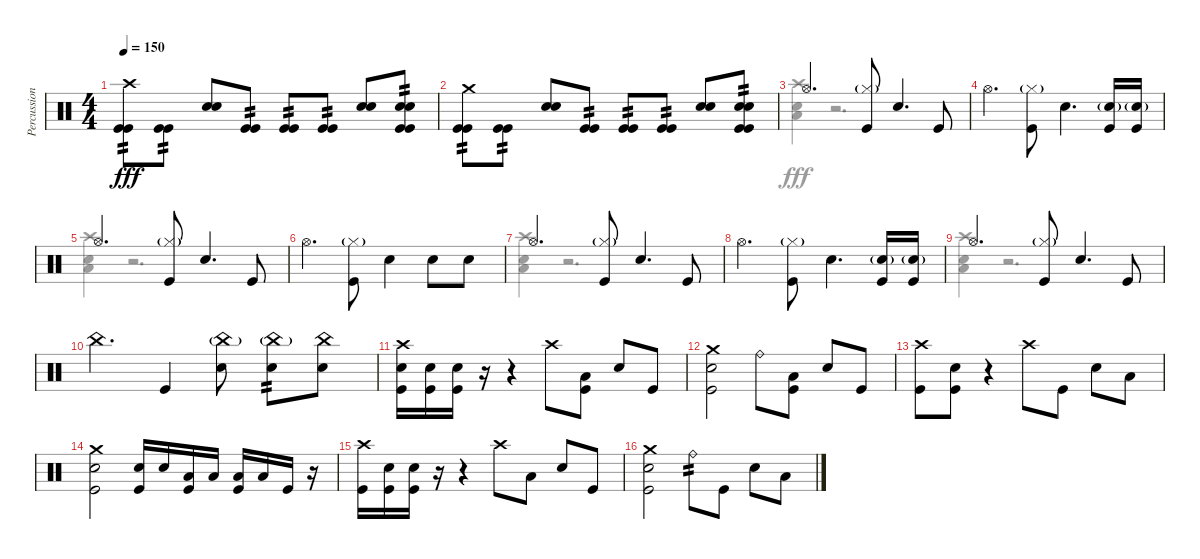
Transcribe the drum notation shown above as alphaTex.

\track ("Percussion" "Percussion") {instrument percussion}
\staff {score}
\articulation defaults
\voice
\ts (4 4)
\tempo 150
\clef neutral
\ks c
("Crash high (hit)" "Kick (hit)" "Kick (hit)").8{tp 2 dy fff} ("Kick (hit)" "Kick (hit)").8{tp 2} ("Snare (hit) 2" "Snare (hit) 2").8 ("Kick (hit)" "Kick (hit)").8{tp 2} ("Kick (hit)" "Kick (hit)").8{tp 2} ("Kick (hit)" "Kick (hit)").8{tp 2} ("Snare (hit) 2" "Snare (hit) 2").8 ("Snare (hit) 2" "Snare (hit) 2" "Kick (hit)" "Kick (hit)").8{tp 2} |
("Crash medium (hit)" "Kick (hit)" "Kick (hit)").8{tp 2} ("Kick (hit)" "Kick (hit)").8{tp 2} ("Snare (hit) 2" "Snare (hit) 2").8 ("Kick (hit)" "Kick (hit)").8{tp 2} ("Kick (hit)" "Kick (hit)").8{tp 2} ("Kick (hit)" "Kick (hit)").8{tp 2} ("Snare (hit) 2" "Snare (hit) 2").8 ("Snare (hit) 2" "Snare (hit) 2" "Kick (hit)" "Kick (hit)").8{tp 2} |
"Hi-Hat (open)".4{d} ("Hi-Hat (closed)"{g} "Kick (hit)").8 "Snare (hit) 2".4{d} "Kick (hit)".8 |
"Hi-Hat (open)".4{d} ("Hi-Hat (closed)"{g} "Kick (hit)").8 "Snare (hit) 2".4{d} ("Snare (hit) 2"{g} "Kick (hit)").16 ("Snare (hit) 2"{g} "Kick (hit)").16 |
"Hi-Hat (open)".4{d} ("Hi-Hat (closed)"{g} "Kick (hit)").8 "Snare (hit) 2".4{d} "Kick (hit)".8 |
"Hi-Hat (open)".4{d} ("Hi-Hat (closed)"{g} "Kick (hit)").8 "Snare (hit) 2".4 "Snare (hit) 2".8 "Snare (hit) 2".8 |
"Hi-Hat (open)".4{d} ("Hi-Hat (closed)"{g} "Kick (hit)").8 "Snare (hit) 2".4{d} "Kick (hit)".8 |
"Hi-Hat (open)".4{d} ("Hi-Hat (closed)"{g} "Kick (hit)").8 "Snare (hit) 2".4{d} ("Snare (hit) 2"{g} "Kick (hit)").16 ("Snare (hit) 2"{g} "Kick (hit)").16 |
"Hi-Hat (open)".4{d} ("Hi-Hat (closed)"{g} "Kick (hit)").8 "Snare (hit) 2".4{d} "Kick (hit)".8 |
"China (hit)".4{d} "Kick (hit)".4 ("China (hit)"{g} "Snare (hit) 2").8 ("China (hit)"{g} "Snare (hit) 2").8{tp 2} ("China (hit)" "Snare (hit) 2").8 |
("Crash high (hit)" "Snare (hit) 2" "Kick (hit)").16 ("Snare (hit) 2" "Kick (hit)").16 ("Snare (hit) 2" "Kick (hit)").16 r.16 r.4 "Crash high (hit)".8 ("Low Floor Tom (hit)" "Kick (hit)").8 "Snare (hit) 2".8 "Kick (hit)".8 |
("Crash medium (hit)" "Snare (hit) 2" "Kick (hit)").2 "Ride (bell)".8 ("Low Floor Tom (hit)" "Kick (hit)").8 "Snare (hit) 2".8 "Kick (hit)".8 |
("Crash high (hit)" "Kick (hit)").8 ("Snare (hit) 2" "Kick (hit)").8 r.4 "Crash high (hit)".8 "Kick (hit)".8 "Snare (hit) 2".8 "Low Floor Tom (hit)".8 |
("Crash medium (hit)" "Snare (hit) 2" "Kick (hit)").2 ("Snare (hit) 2" "Kick (hit)").16 "Snare (hit) 2".16 ("Low Floor Tom (hit)" "Kick (hit)").16 "Low Floor Tom (hit)".16 ("Low Tom (hit)" "Kick (hit)").16 "Low Tom (hit)".16 "Kick (hit)".16 r.16 |
("Crash high (hit)" "Kick (hit)").16 ("Snare (hit) 2" "Kick (hit)").16 ("Snare (hit) 2" "Kick (hit)").16 r.16 r.4 "Crash high (hit)".8 "Low Floor Tom (hit)".8 "Snare (hit) 2".8 "Kick (hit)".8 |
("Crash medium (hit)" "Snare (hit) 2" "Kick (hit)").2 "Ride (bell)".8{tp 2} "Kick (hit)".8 "Snare (hit) 2".8 "Low Floor Tom (hit)".8
\voice
\clef neutral
\ottava regular
\simile none
\ks c
|
|
("Crash high (hit)" "Snare (hit) 2" "Low Floor Tom (hit)").4 r.2{d} |
|
("Crash high (hit)" "Snare (hit) 2" "Low Floor Tom (hit)").4 r.2{d} |
|
("Crash high (hit)" "Snare (hit) 2" "Low Floor Tom (hit)").4 r.2{d} |
|
("Crash high (hit)" "Snare (hit) 2" "Low Floor Tom (hit)").4 r.2{d} |
|
|
|
|
|
|
